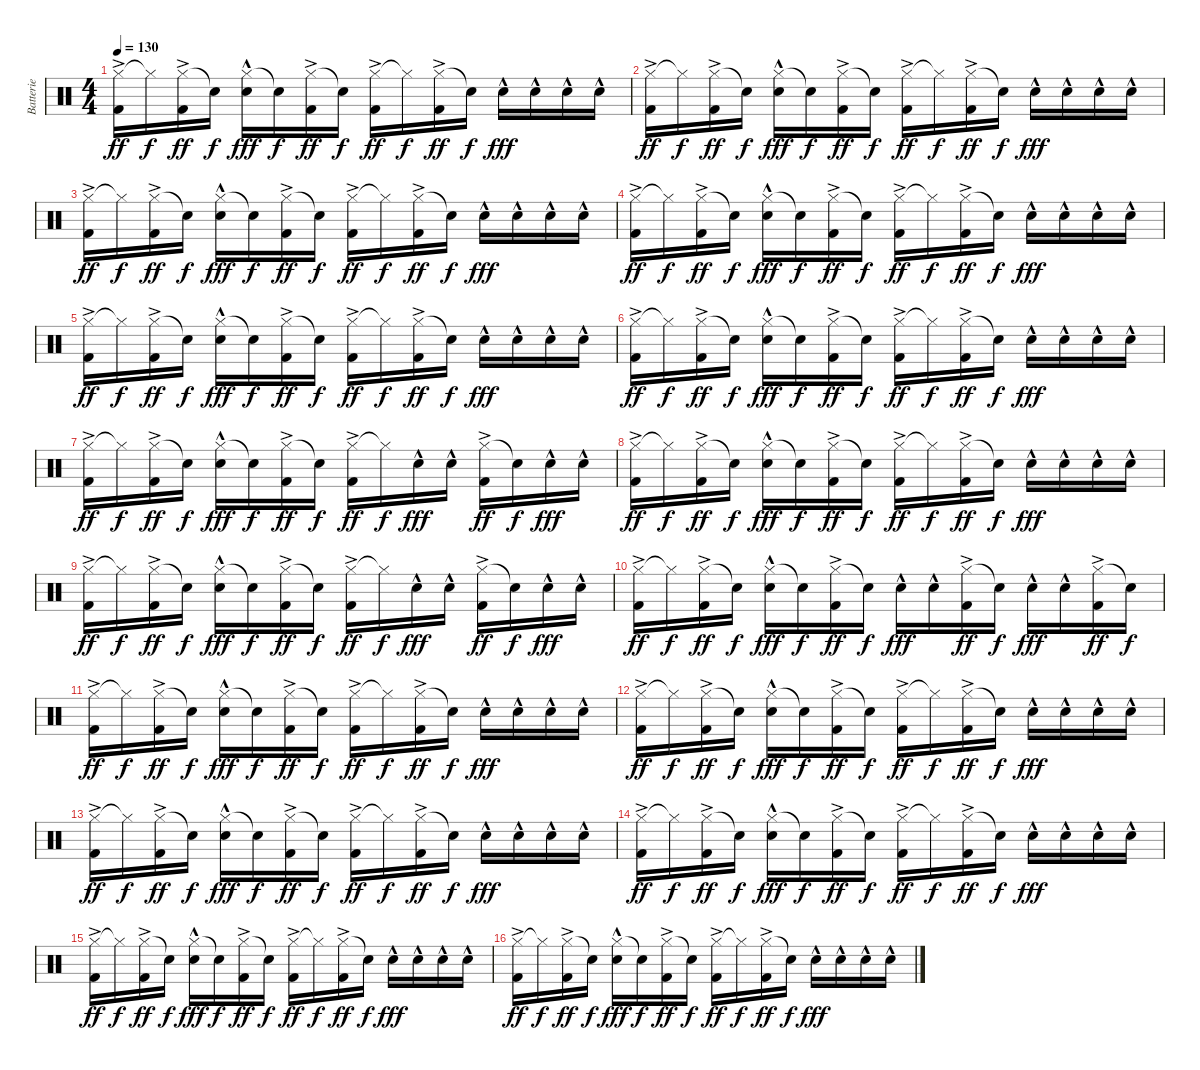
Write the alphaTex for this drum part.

\track ("Batterie" "Batterie") {instrument percussion}
\staff {score}
\articulation defaults
\ts (4 4)
\tempo 130
\clef neutral
\ks c
("Hi-Hat (closed)"{ac} "Kick (hit) 2"{ac}).16{dy ff} "Hi-Hat (closed)"{t}.16{dy f} ("Hi-Hat (closed)"{ac} "Kick (hit) 2"{ac}).16{dy ff} "Snare (hit)"{t}.16{dy f} ("Hi-Hat (closed)"{hac} "Electric Snare (hit)"{hac}).16{dy fff} "Snare (hit)"{t}.16{dy f} ("Hi-Hat (closed)"{ac} "Kick (hit) 2"{ac}).16{dy ff} "Snare (hit)"{t}.16{dy f} ("Hi-Hat (closed)"{ac} "Kick (hit) 2"{ac}).16{dy ff} "Hi-Hat (closed)"{t}.16{dy f} ("Hi-Hat (closed)"{ac} "Kick (hit) 2"{ac}).16{dy ff} "Snare (hit)"{t}.16{dy f} "Electric Snare (hit)"{hac}.16{dy fff} "Electric Snare (hit)"{hac}.16 "Electric Snare (hit)"{hac}.16 "Electric Snare (hit)"{hac}.16 |
("Hi-Hat (closed)"{ac} "Kick (hit) 2"{ac}).16{dy ff} "Hi-Hat (closed)"{t}.16{dy f} ("Hi-Hat (closed)"{ac} "Kick (hit) 2"{ac}).16{dy ff} "Snare (hit)"{t}.16{dy f} ("Hi-Hat (closed)"{hac} "Electric Snare (hit)"{hac}).16{dy fff} "Snare (hit)"{t}.16{dy f} ("Hi-Hat (closed)"{ac} "Kick (hit) 2"{ac}).16{dy ff} "Snare (hit)"{t}.16{dy f} ("Hi-Hat (closed)"{ac} "Kick (hit) 2"{ac}).16{dy ff} "Hi-Hat (closed)"{t}.16{dy f} ("Hi-Hat (closed)"{ac} "Kick (hit) 2"{ac}).16{dy ff} "Snare (hit)"{t}.16{dy f} "Electric Snare (hit)"{hac}.16{dy fff} "Electric Snare (hit)"{hac}.16 "Electric Snare (hit)"{hac}.16 "Electric Snare (hit)"{hac}.16 |
("Hi-Hat (closed)"{ac} "Kick (hit) 2"{ac}).16{dy ff} "Hi-Hat (closed)"{t}.16{dy f} ("Hi-Hat (closed)"{ac} "Kick (hit) 2"{ac}).16{dy ff} "Snare (hit)"{t}.16{dy f} ("Hi-Hat (closed)"{hac} "Electric Snare (hit)"{hac}).16{dy fff} "Snare (hit)"{t}.16{dy f} ("Hi-Hat (closed)"{ac} "Kick (hit) 2"{ac}).16{dy ff} "Snare (hit)"{t}.16{dy f} ("Hi-Hat (closed)"{ac} "Kick (hit) 2"{ac}).16{dy ff} "Hi-Hat (closed)"{t}.16{dy f} ("Hi-Hat (closed)"{ac} "Kick (hit) 2"{ac}).16{dy ff} "Snare (hit)"{t}.16{dy f} "Electric Snare (hit)"{hac}.16{dy fff} "Electric Snare (hit)"{hac}.16 "Electric Snare (hit)"{hac}.16 "Electric Snare (hit)"{hac}.16 |
("Hi-Hat (closed)"{ac} "Kick (hit) 2"{ac}).16{dy ff} "Hi-Hat (closed)"{t}.16{dy f} ("Hi-Hat (closed)"{ac} "Kick (hit) 2"{ac}).16{dy ff} "Snare (hit)"{t}.16{dy f} ("Hi-Hat (closed)"{hac} "Electric Snare (hit)"{hac}).16{dy fff} "Snare (hit)"{t}.16{dy f} ("Hi-Hat (closed)"{ac} "Kick (hit) 2"{ac}).16{dy ff} "Snare (hit)"{t}.16{dy f} ("Hi-Hat (closed)"{ac} "Kick (hit) 2"{ac}).16{dy ff} "Hi-Hat (closed)"{t}.16{dy f} ("Hi-Hat (closed)"{ac} "Kick (hit) 2"{ac}).16{dy ff} "Snare (hit)"{t}.16{dy f} "Electric Snare (hit)"{hac}.16{dy fff} "Electric Snare (hit)"{hac}.16 "Electric Snare (hit)"{hac}.16 "Electric Snare (hit)"{hac}.16 |
("Hi-Hat (closed)"{ac} "Kick (hit) 2"{ac}).16{dy ff} "Hi-Hat (closed)"{t}.16{dy f} ("Hi-Hat (closed)"{ac} "Kick (hit) 2"{ac}).16{dy ff} "Snare (hit)"{t}.16{dy f} ("Hi-Hat (closed)"{hac} "Electric Snare (hit)"{hac}).16{dy fff} "Snare (hit)"{t}.16{dy f} ("Hi-Hat (closed)"{ac} "Kick (hit) 2"{ac}).16{dy ff} "Snare (hit)"{t}.16{dy f} ("Hi-Hat (closed)"{ac} "Kick (hit) 2"{ac}).16{dy ff} "Hi-Hat (closed)"{t}.16{dy f} ("Hi-Hat (closed)"{ac} "Kick (hit) 2"{ac}).16{dy ff} "Snare (hit)"{t}.16{dy f} "Electric Snare (hit)"{hac}.16{dy fff} "Electric Snare (hit)"{hac}.16 "Electric Snare (hit)"{hac}.16 "Electric Snare (hit)"{hac}.16 |
("Hi-Hat (closed)"{ac} "Kick (hit) 2"{ac}).16{dy ff} "Hi-Hat (closed)"{t}.16{dy f} ("Hi-Hat (closed)"{ac} "Kick (hit) 2"{ac}).16{dy ff} "Snare (hit)"{t}.16{dy f} ("Hi-Hat (closed)"{hac} "Electric Snare (hit)"{hac}).16{dy fff} "Snare (hit)"{t}.16{dy f} ("Hi-Hat (closed)"{ac} "Kick (hit) 2"{ac}).16{dy ff} "Snare (hit)"{t}.16{dy f} ("Hi-Hat (closed)"{ac} "Kick (hit) 2"{ac}).16{dy ff} "Hi-Hat (closed)"{t}.16{dy f} ("Hi-Hat (closed)"{ac} "Kick (hit) 2"{ac}).16{dy ff} "Snare (hit)"{t}.16{dy f} "Electric Snare (hit)"{hac}.16{dy fff} "Electric Snare (hit)"{hac}.16 "Electric Snare (hit)"{hac}.16 "Electric Snare (hit)"{hac}.16 |
("Hi-Hat (closed)"{ac} "Kick (hit) 2"{ac}).16{dy ff} "Hi-Hat (closed)"{t}.16{dy f} ("Hi-Hat (closed)"{ac} "Kick (hit) 2"{ac}).16{dy ff} "Snare (hit)"{t}.16{dy f} ("Hi-Hat (closed)"{hac} "Electric Snare (hit)"{hac}).16{dy fff} "Snare (hit)"{t}.16{dy f} ("Hi-Hat (closed)"{ac} "Kick (hit) 2"{ac}).16{dy ff} "Snare (hit)"{t}.16{dy f} ("Hi-Hat (closed)"{ac} "Kick (hit) 2"{ac}).16{dy ff} "Hi-Hat (closed)"{t}.16{dy f} "Electric Snare (hit)"{hac}.16{dy fff} "Electric Snare (hit)"{hac}.16 ("Hi-Hat (closed)"{ac} "Kick (hit) 2"{ac}).16{dy ff} "Electric Snare (hit)"{t}.16{dy f} "Electric Snare (hit)"{hac}.16{dy fff} "Electric Snare (hit)"{hac}.16 |
("Hi-Hat (closed)"{ac} "Kick (hit) 2"{ac}).16{dy ff} "Hi-Hat (closed)"{t}.16{dy f} ("Hi-Hat (closed)"{ac} "Kick (hit) 2"{ac}).16{dy ff} "Snare (hit)"{t}.16{dy f} ("Hi-Hat (closed)"{hac} "Electric Snare (hit)"{hac}).16{dy fff} "Snare (hit)"{t}.16{dy f} ("Hi-Hat (closed)"{ac} "Kick (hit) 2"{ac}).16{dy ff} "Snare (hit)"{t}.16{dy f} ("Hi-Hat (closed)"{ac} "Kick (hit) 2"{ac}).16{dy ff} "Hi-Hat (closed)"{t}.16{dy f} ("Hi-Hat (closed)"{ac} "Kick (hit) 2"{ac}).16{dy ff} "Snare (hit)"{t}.16{dy f} "Electric Snare (hit)"{hac}.16{dy fff} "Electric Snare (hit)"{hac}.16 "Electric Snare (hit)"{hac}.16 "Electric Snare (hit)"{hac}.16 |
("Hi-Hat (closed)"{ac} "Kick (hit) 2"{ac}).16{dy ff} "Hi-Hat (closed)"{t}.16{dy f} ("Hi-Hat (closed)"{ac} "Kick (hit) 2"{ac}).16{dy ff} "Snare (hit)"{t}.16{dy f} ("Hi-Hat (closed)"{hac} "Electric Snare (hit)"{hac}).16{dy fff} "Snare (hit)"{t}.16{dy f} ("Hi-Hat (closed)"{ac} "Kick (hit) 2"{ac}).16{dy ff} "Snare (hit)"{t}.16{dy f} ("Hi-Hat (closed)"{ac} "Kick (hit) 2"{ac}).16{dy ff} "Hi-Hat (closed)"{t}.16{dy f} "Electric Snare (hit)"{hac}.16{dy fff} "Electric Snare (hit)"{hac}.16 ("Hi-Hat (closed)"{ac} "Kick (hit) 2"{ac}).16{dy ff} "Snare (hit)"{t}.16{dy f} "Electric Snare (hit)"{hac}.16{dy fff} "Electric Snare (hit)"{hac}.16 |
("Hi-Hat (closed)"{ac} "Kick (hit) 2"{ac}).16{dy ff} "Hi-Hat (closed)"{t}.16{dy f} ("Hi-Hat (closed)"{ac} "Kick (hit) 2"{ac}).16{dy ff} "Snare (hit)"{t}.16{dy f} ("Hi-Hat (closed)"{hac} "Electric Snare (hit)"{hac}).16{dy fff} "Snare (hit)"{t}.16{dy f} ("Hi-Hat (closed)"{ac} "Kick (hit) 2"{ac}).16{dy ff} "Snare (hit)"{t}.16{dy f} "Electric Snare (hit)"{hac}.16{dy fff} "Electric Snare (hit)"{hac}.16 ("Hi-Hat (closed)"{ac} "Kick (hit) 2"{ac}).16{dy ff} "Snare (hit)"{t}.16{dy f} "Electric Snare (hit)"{hac}.16{dy fff} "Electric Snare (hit)"{hac}.16 ("Hi-Hat (closed)" "Kick (hit) 2"{ac}).16{dy ff} "Snare (hit)"{t}.16{dy f} |
("Hi-Hat (closed)"{ac} "Kick (hit) 2"{ac}).16{dy ff} "Hi-Hat (closed)"{t}.16{dy f} ("Hi-Hat (closed)"{ac} "Kick (hit) 2"{ac}).16{dy ff} "Snare (hit)"{t}.16{dy f} ("Hi-Hat (closed)"{hac} "Electric Snare (hit)"{hac}).16{dy fff} "Snare (hit)"{t}.16{dy f} ("Hi-Hat (closed)"{ac} "Kick (hit) 2"{ac}).16{dy ff} "Snare (hit)"{t}.16{dy f} ("Hi-Hat (closed)"{ac} "Kick (hit) 2"{ac}).16{dy ff} "Hi-Hat (closed)"{t}.16{dy f} ("Hi-Hat (closed)"{ac} "Kick (hit) 2"{ac}).16{dy ff} "Snare (hit)"{t}.16{dy f} "Electric Snare (hit)"{hac}.16{dy fff} "Electric Snare (hit)"{hac}.16 "Electric Snare (hit)"{hac}.16 "Electric Snare (hit)"{hac}.16 |
("Hi-Hat (closed)"{ac} "Kick (hit) 2"{ac}).16{dy ff} "Hi-Hat (closed)"{t}.16{dy f} ("Hi-Hat (closed)"{ac} "Kick (hit) 2"{ac}).16{dy ff} "Snare (hit)"{t}.16{dy f} ("Hi-Hat (closed)"{hac} "Electric Snare (hit)"{hac}).16{dy fff} "Snare (hit)"{t}.16{dy f} ("Hi-Hat (closed)"{ac} "Kick (hit) 2"{ac}).16{dy ff} "Snare (hit)"{t}.16{dy f} ("Hi-Hat (closed)"{ac} "Kick (hit) 2"{ac}).16{dy ff} "Hi-Hat (closed)"{t}.16{dy f} ("Hi-Hat (closed)"{ac} "Kick (hit) 2"{ac}).16{dy ff} "Snare (hit)"{t}.16{dy f} "Electric Snare (hit)"{hac}.16{dy fff} "Electric Snare (hit)"{hac}.16 "Electric Snare (hit)"{hac}.16 "Electric Snare (hit)"{hac}.16 |
("Hi-Hat (closed)"{ac} "Kick (hit) 2"{ac}).16{dy ff} "Hi-Hat (closed)"{t}.16{dy f} ("Hi-Hat (closed)"{ac} "Kick (hit) 2"{ac}).16{dy ff} "Snare (hit)"{t}.16{dy f} ("Hi-Hat (closed)"{hac} "Electric Snare (hit)"{hac}).16{dy fff} "Snare (hit)"{t}.16{dy f} ("Hi-Hat (closed)"{ac} "Kick (hit) 2"{ac}).16{dy ff} "Snare (hit)"{t}.16{dy f} ("Hi-Hat (closed)"{ac} "Kick (hit) 2"{ac}).16{dy ff} "Hi-Hat (closed)"{t}.16{dy f} ("Hi-Hat (closed)"{ac} "Kick (hit) 2"{ac}).16{dy ff} "Snare (hit)"{t}.16{dy f} "Electric Snare (hit)"{hac}.16{dy fff} "Electric Snare (hit)"{hac}.16 "Electric Snare (hit)"{hac}.16 "Electric Snare (hit)"{hac}.16 |
("Hi-Hat (closed)"{ac} "Kick (hit) 2"{ac}).16{dy ff} "Hi-Hat (closed)"{t}.16{dy f} ("Hi-Hat (closed)"{ac} "Kick (hit) 2"{ac}).16{dy ff} "Snare (hit)"{t}.16{dy f} ("Hi-Hat (closed)"{hac} "Electric Snare (hit)"{hac}).16{dy fff} "Snare (hit)"{t}.16{dy f} ("Hi-Hat (closed)"{ac} "Kick (hit) 2"{ac}).16{dy ff} "Snare (hit)"{t}.16{dy f} ("Hi-Hat (closed)"{ac} "Kick (hit) 2"{ac}).16{dy ff} "Hi-Hat (closed)"{t}.16{dy f} ("Hi-Hat (closed)"{ac} "Kick (hit) 2"{ac}).16{dy ff} "Snare (hit)"{t}.16{dy f} "Electric Snare (hit)"{hac}.16{dy fff} "Electric Snare (hit)"{hac}.16 "Electric Snare (hit)"{hac}.16 "Electric Snare (hit)"{hac}.16 |
("Hi-Hat (closed)"{ac} "Kick (hit) 2"{ac}).16{dy ff} "Hi-Hat (closed)"{t}.16{dy f} ("Hi-Hat (closed)"{ac} "Kick (hit) 2"{ac}).16{dy ff} "Snare (hit)"{t}.16{dy f} ("Hi-Hat (closed)"{hac} "Electric Snare (hit)"{hac}).16{dy fff} "Snare (hit)"{t}.16{dy f} ("Hi-Hat (closed)"{ac} "Kick (hit) 2"{ac}).16{dy ff} "Snare (hit)"{t}.16{dy f} ("Hi-Hat (closed)"{ac} "Kick (hit) 2"{ac}).16{dy ff} "Hi-Hat (closed)"{t}.16{dy f} ("Hi-Hat (closed)"{ac} "Kick (hit) 2"{ac}).16{dy ff} "Snare (hit)"{t}.16{dy f} "Electric Snare (hit)"{hac}.16{dy fff} "Electric Snare (hit)"{hac}.16 "Electric Snare (hit)"{hac}.16 "Electric Snare (hit)"{hac}.16 |
("Hi-Hat (closed)"{ac} "Kick (hit) 2"{ac}).16{dy ff} "Hi-Hat (closed)"{t}.16{dy f} ("Hi-Hat (closed)"{ac} "Kick (hit) 2"{ac}).16{dy ff} "Snare (hit)"{t}.16{dy f} ("Hi-Hat (closed)"{hac} "Electric Snare (hit)"{hac}).16{dy fff} "Snare (hit)"{t}.16{dy f} ("Hi-Hat (closed)"{ac} "Kick (hit) 2"{ac}).16{dy ff} "Snare (hit)"{t}.16{dy f} ("Hi-Hat (closed)"{ac} "Kick (hit) 2"{ac}).16{dy ff} "Hi-Hat (closed)"{t}.16{dy f} ("Hi-Hat (closed)"{ac} "Kick (hit) 2"{ac}).16{dy ff} "Snare (hit)"{t}.16{dy f} "Electric Snare (hit)"{hac}.16{dy fff} "Electric Snare (hit)"{hac}.16 "Electric Snare (hit)"{hac}.16 "Electric Snare (hit)"{hac}.16
